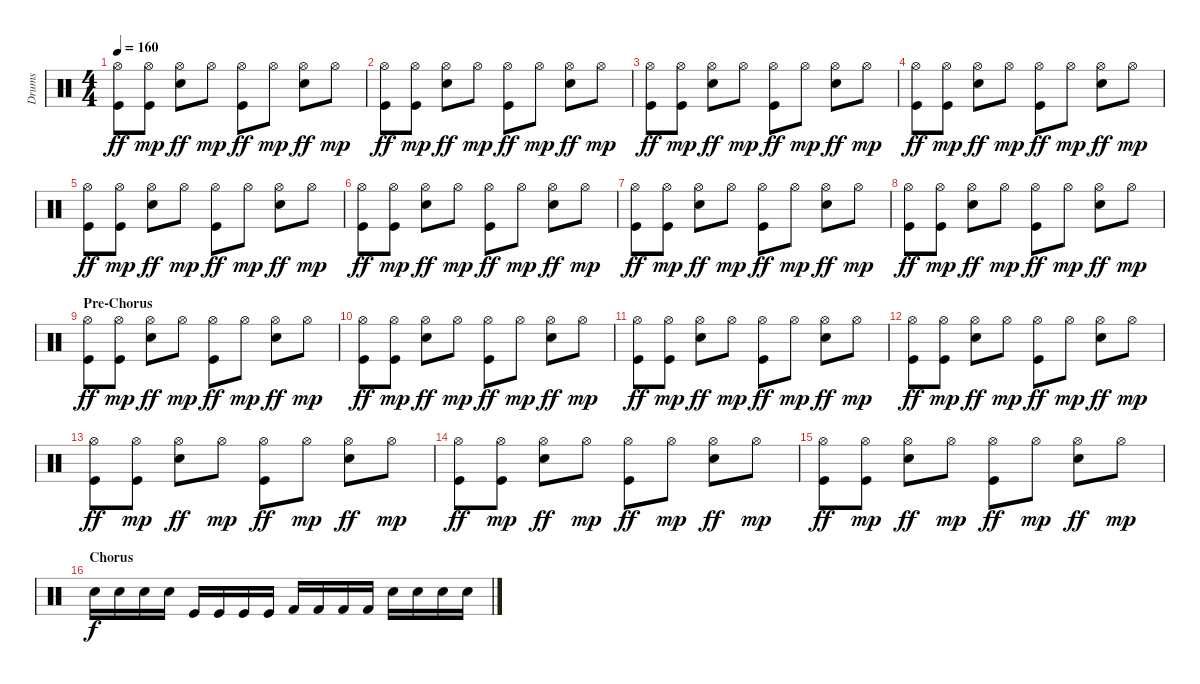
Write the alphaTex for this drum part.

\track ("Drums" "Drums") {instrument percussion}
\staff {score}
\articulation defaults
\ts (4 4)
\tempo 160
\clef neutral
\ks c
("Kick (hit)" "Hi-Hat (open)").8{dy ff} ("Kick (hit)" "Hi-Hat (open)").8{dy mp} ("Electric Snare (hit)" "Hi-Hat (open)").8{dy ff} "Hi-Hat (open)".8{dy mp} ("Kick (hit)" "Hi-Hat (open)").8{dy ff} "Hi-Hat (open)".8{dy mp} ("Electric Snare (hit)" "Hi-Hat (open)").8{dy ff} "Hi-Hat (open)".8{dy mp} |
("Kick (hit)" "Hi-Hat (open)").8{dy ff} ("Kick (hit)" "Hi-Hat (open)").8{dy mp} ("Electric Snare (hit)" "Hi-Hat (open)").8{dy ff} "Hi-Hat (open)".8{dy mp} ("Kick (hit)" "Hi-Hat (open)").8{dy ff} "Hi-Hat (open)".8{dy mp} ("Electric Snare (hit)" "Hi-Hat (open)").8{dy ff} "Hi-Hat (open)".8{dy mp} |
("Kick (hit)" "Hi-Hat (open)").8{dy ff} ("Kick (hit)" "Hi-Hat (open)").8{dy mp} ("Electric Snare (hit)" "Hi-Hat (open)").8{dy ff} "Hi-Hat (open)".8{dy mp} ("Kick (hit)" "Hi-Hat (open)").8{dy ff} "Hi-Hat (open)".8{dy mp} ("Electric Snare (hit)" "Hi-Hat (open)").8{dy ff} "Hi-Hat (open)".8{dy mp} |
("Kick (hit)" "Hi-Hat (open)").8{dy ff} ("Kick (hit)" "Hi-Hat (open)").8{dy mp} ("Electric Snare (hit)" "Hi-Hat (open)").8{dy ff} "Hi-Hat (open)".8{dy mp} ("Kick (hit)" "Hi-Hat (open)").8{dy ff} "Hi-Hat (open)".8{dy mp} ("Electric Snare (hit)" "Hi-Hat (open)").8{dy ff} "Hi-Hat (open)".8{dy mp} |
("Kick (hit)" "Hi-Hat (open)").8{dy ff} ("Kick (hit)" "Hi-Hat (open)").8{dy mp} ("Electric Snare (hit)" "Hi-Hat (open)").8{dy ff} "Hi-Hat (open)".8{dy mp} ("Kick (hit)" "Hi-Hat (open)").8{dy ff} "Hi-Hat (open)".8{dy mp} ("Electric Snare (hit)" "Hi-Hat (open)").8{dy ff} "Hi-Hat (open)".8{dy mp} |
("Kick (hit)" "Hi-Hat (open)").8{dy ff} ("Kick (hit)" "Hi-Hat (open)").8{dy mp} ("Electric Snare (hit)" "Hi-Hat (open)").8{dy ff} "Hi-Hat (open)".8{dy mp} ("Kick (hit)" "Hi-Hat (open)").8{dy ff} "Hi-Hat (open)".8{dy mp} ("Electric Snare (hit)" "Hi-Hat (open)").8{dy ff} "Hi-Hat (open)".8{dy mp} |
("Kick (hit)" "Hi-Hat (open)").8{dy ff} ("Kick (hit)" "Hi-Hat (open)").8{dy mp} ("Electric Snare (hit)" "Hi-Hat (open)").8{dy ff} "Hi-Hat (open)".8{dy mp} ("Kick (hit)" "Hi-Hat (open)").8{dy ff} "Hi-Hat (open)".8{dy mp} ("Electric Snare (hit)" "Hi-Hat (open)").8{dy ff} "Hi-Hat (open)".8{dy mp} |
("Kick (hit)" "Hi-Hat (open)").8{dy ff} ("Kick (hit)" "Hi-Hat (open)").8{dy mp} ("Electric Snare (hit)" "Hi-Hat (open)").8{dy ff} "Hi-Hat (open)".8{dy mp} ("Kick (hit)" "Hi-Hat (open)").8{dy ff} "Hi-Hat (open)".8{dy mp} ("Electric Snare (hit)" "Hi-Hat (open)").8{dy ff} "Hi-Hat (open)".8{dy mp} |
\section ("" "Pre-Chorus")
("Kick (hit)" "Hi-Hat (open)").8{dy ff} ("Kick (hit)" "Hi-Hat (open)").8{dy mp} ("Electric Snare (hit)" "Hi-Hat (open)").8{dy ff} "Hi-Hat (open)".8{dy mp} ("Kick (hit)" "Hi-Hat (open)").8{dy ff} "Hi-Hat (open)".8{dy mp} ("Electric Snare (hit)" "Hi-Hat (open)").8{dy ff} "Hi-Hat (open)".8{dy mp} |
("Kick (hit)" "Hi-Hat (open)").8{dy ff} ("Kick (hit)" "Hi-Hat (open)").8{dy mp} ("Electric Snare (hit)" "Hi-Hat (open)").8{dy ff} "Hi-Hat (open)".8{dy mp} ("Kick (hit)" "Hi-Hat (open)").8{dy ff} "Hi-Hat (open)".8{dy mp} ("Electric Snare (hit)" "Hi-Hat (open)").8{dy ff} "Hi-Hat (open)".8{dy mp} |
("Kick (hit)" "Hi-Hat (open)").8{dy ff} ("Kick (hit)" "Hi-Hat (open)").8{dy mp} ("Electric Snare (hit)" "Hi-Hat (open)").8{dy ff} "Hi-Hat (open)".8{dy mp} ("Kick (hit)" "Hi-Hat (open)").8{dy ff} "Hi-Hat (open)".8{dy mp} ("Electric Snare (hit)" "Hi-Hat (open)").8{dy ff} "Hi-Hat (open)".8{dy mp} |
("Kick (hit)" "Hi-Hat (open)").8{dy ff} ("Kick (hit)" "Hi-Hat (open)").8{dy mp} ("Electric Snare (hit)" "Hi-Hat (open)").8{dy ff} "Hi-Hat (open)".8{dy mp} ("Kick (hit)" "Hi-Hat (open)").8{dy ff} "Hi-Hat (open)".8{dy mp} ("Electric Snare (hit)" "Hi-Hat (open)").8{dy ff} "Hi-Hat (open)".8{dy mp} |
("Kick (hit)" "Hi-Hat (open)").8{dy ff} ("Kick (hit)" "Hi-Hat (open)").8{dy mp} ("Electric Snare (hit)" "Hi-Hat (open)").8{dy ff} "Hi-Hat (open)".8{dy mp} ("Kick (hit)" "Hi-Hat (open)").8{dy ff} "Hi-Hat (open)".8{dy mp} ("Electric Snare (hit)" "Hi-Hat (open)").8{dy ff} "Hi-Hat (open)".8{dy mp} |
("Kick (hit)" "Hi-Hat (open)").8{dy ff} ("Kick (hit)" "Hi-Hat (open)").8{dy mp} ("Electric Snare (hit)" "Hi-Hat (open)").8{dy ff} "Hi-Hat (open)".8{dy mp} ("Kick (hit)" "Hi-Hat (open)").8{dy ff} "Hi-Hat (open)".8{dy mp} ("Electric Snare (hit)" "Hi-Hat (open)").8{dy ff} "Hi-Hat (open)".8{dy mp} |
("Kick (hit)" "Hi-Hat (open)").8{dy ff} ("Kick (hit)" "Hi-Hat (open)").8{dy mp} ("Electric Snare (hit)" "Hi-Hat (open)").8{dy ff} "Hi-Hat (open)".8{dy mp} ("Kick (hit)" "Hi-Hat (open)").8{dy ff} "Hi-Hat (open)".8{dy mp} ("Electric Snare (hit)" "Hi-Hat (open)").8{dy ff} "Hi-Hat (open)".8{dy mp} |
\section ("" "Chorus")
"Electric Snare (hit)".16{dy f} "Electric Snare (hit)".16 "Electric Snare (hit)".16 "Electric Snare (hit)".16 "Kick (hit)".16 "Kick (hit)".16 "Kick (hit)".16 "Kick (hit)".16 "Kick (hit) 2".16 "Kick (hit) 2".16 "Kick (hit) 2".16 "Kick (hit) 2".16 "Electric Snare (hit)".16 "Electric Snare (hit)".16 "Electric Snare (hit)".16 "Electric Snare (hit)".16
